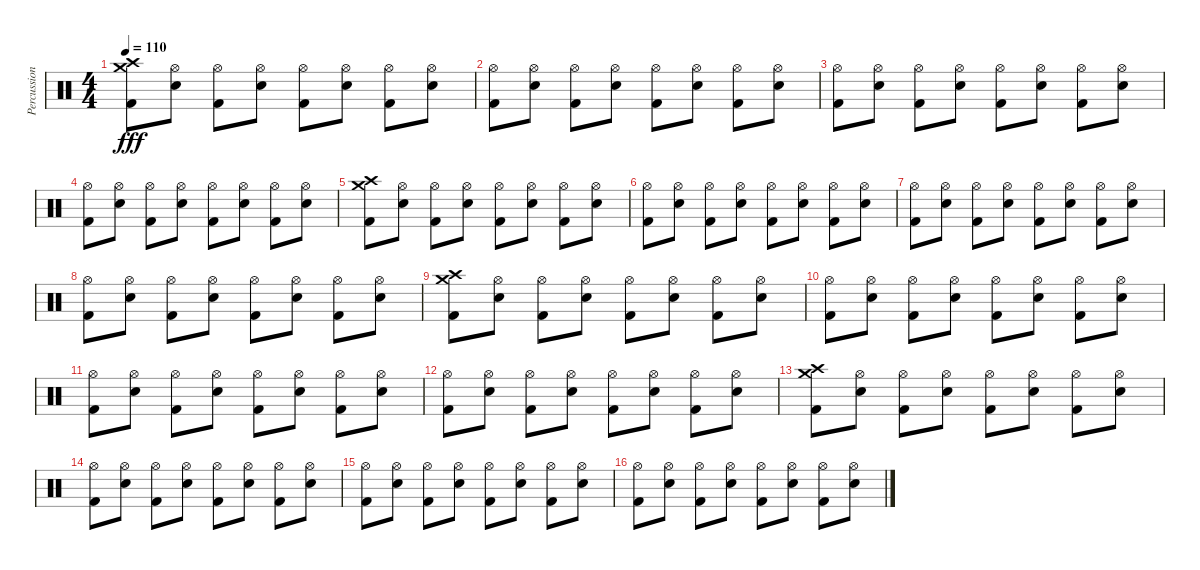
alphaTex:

\track ("Percussion" "Percussion") {instrument percussion}
\staff {score}
\articulation defaults
\ts (4 4)
\tempo 110
\clef neutral
\ks c
("Kick (hit) 2" "Crash medium (hit)" "Crash high (hit)").8{dy fff} ("Electric Snare (hit)" "Hi-Hat (open)").8 ("Kick (hit) 2" "Hi-Hat (open)").8 ("Electric Snare (hit)" "Hi-Hat (open)").8 ("Kick (hit) 2" "Hi-Hat (open)").8 ("Electric Snare (hit)" "Hi-Hat (open)").8 ("Kick (hit) 2" "Hi-Hat (open)").8 ("Electric Snare (hit)" "Hi-Hat (open)").8 |
("Kick (hit) 2" "Hi-Hat (open)").8 ("Electric Snare (hit)" "Hi-Hat (open)").8 ("Kick (hit) 2" "Hi-Hat (open)").8 ("Electric Snare (hit)" "Hi-Hat (open)").8 ("Kick (hit) 2" "Hi-Hat (open)").8 ("Electric Snare (hit)" "Hi-Hat (open)").8 ("Kick (hit) 2" "Hi-Hat (open)").8 ("Electric Snare (hit)" "Hi-Hat (open)").8 |
("Kick (hit) 2" "Hi-Hat (open)").8 ("Electric Snare (hit)" "Hi-Hat (open)").8 ("Kick (hit) 2" "Hi-Hat (open)").8 ("Electric Snare (hit)" "Hi-Hat (open)").8 ("Kick (hit) 2" "Hi-Hat (open)").8 ("Electric Snare (hit)" "Hi-Hat (open)").8 ("Kick (hit) 2" "Hi-Hat (open)").8 ("Electric Snare (hit)" "Hi-Hat (open)").8 |
("Kick (hit) 2" "Hi-Hat (open)").8 ("Electric Snare (hit)" "Hi-Hat (open)").8 ("Kick (hit) 2" "Hi-Hat (open)").8 ("Electric Snare (hit)" "Hi-Hat (open)").8 ("Kick (hit) 2" "Hi-Hat (open)").8 ("Electric Snare (hit)" "Hi-Hat (open)").8 ("Kick (hit) 2" "Hi-Hat (open)").8 ("Electric Snare (hit)" "Hi-Hat (open)").8 |
("Kick (hit) 2" "Crash medium (hit)" "Crash high (hit)").8 ("Electric Snare (hit)" "Hi-Hat (open)").8 ("Kick (hit) 2" "Hi-Hat (open)").8 ("Electric Snare (hit)" "Hi-Hat (open)").8 ("Kick (hit) 2" "Hi-Hat (open)").8 ("Electric Snare (hit)" "Hi-Hat (open)").8 ("Kick (hit) 2" "Hi-Hat (open)").8 ("Electric Snare (hit)" "Hi-Hat (open)").8 |
("Kick (hit) 2" "Hi-Hat (open)").8 ("Electric Snare (hit)" "Hi-Hat (open)").8 ("Kick (hit) 2" "Hi-Hat (open)").8 ("Electric Snare (hit)" "Hi-Hat (open)").8 ("Kick (hit) 2" "Hi-Hat (open)").8 ("Electric Snare (hit)" "Hi-Hat (open)").8 ("Kick (hit) 2" "Hi-Hat (open)").8 ("Electric Snare (hit)" "Hi-Hat (open)").8 |
("Kick (hit) 2" "Hi-Hat (open)").8 ("Electric Snare (hit)" "Hi-Hat (open)").8 ("Kick (hit) 2" "Hi-Hat (open)").8 ("Electric Snare (hit)" "Hi-Hat (open)").8 ("Kick (hit) 2" "Hi-Hat (open)").8 ("Electric Snare (hit)" "Hi-Hat (open)").8 ("Kick (hit) 2" "Hi-Hat (open)").8 ("Electric Snare (hit)" "Hi-Hat (open)").8 |
("Kick (hit) 2" "Hi-Hat (open)").8 ("Electric Snare (hit)" "Hi-Hat (open)").8 ("Kick (hit) 2" "Hi-Hat (open)").8 ("Electric Snare (hit)" "Hi-Hat (open)").8 ("Kick (hit) 2" "Hi-Hat (open)").8 ("Electric Snare (hit)" "Hi-Hat (open)").8 ("Kick (hit) 2" "Hi-Hat (open)").8 ("Electric Snare (hit)" "Hi-Hat (open)").8 |
("Kick (hit) 2" "Crash medium (hit)" "Crash high (hit)").8 ("Electric Snare (hit)" "Hi-Hat (open)").8 ("Kick (hit) 2" "Hi-Hat (open)").8 ("Electric Snare (hit)" "Hi-Hat (open)").8 ("Kick (hit) 2" "Hi-Hat (open)").8 ("Electric Snare (hit)" "Hi-Hat (open)").8 ("Kick (hit) 2" "Hi-Hat (open)").8 ("Electric Snare (hit)" "Hi-Hat (open)").8 |
("Kick (hit) 2" "Hi-Hat (open)").8 ("Electric Snare (hit)" "Hi-Hat (open)").8 ("Kick (hit) 2" "Hi-Hat (open)").8 ("Electric Snare (hit)" "Hi-Hat (open)").8 ("Kick (hit) 2" "Hi-Hat (open)").8 ("Electric Snare (hit)" "Hi-Hat (open)").8 ("Kick (hit) 2" "Hi-Hat (open)").8 ("Electric Snare (hit)" "Hi-Hat (open)").8 |
("Kick (hit) 2" "Hi-Hat (open)").8 ("Electric Snare (hit)" "Hi-Hat (open)").8 ("Kick (hit) 2" "Hi-Hat (open)").8 ("Electric Snare (hit)" "Hi-Hat (open)").8 ("Kick (hit) 2" "Hi-Hat (open)").8 ("Electric Snare (hit)" "Hi-Hat (open)").8 ("Kick (hit) 2" "Hi-Hat (open)").8 ("Electric Snare (hit)" "Hi-Hat (open)").8 |
("Kick (hit) 2" "Hi-Hat (open)").8 ("Electric Snare (hit)" "Hi-Hat (open)").8 ("Kick (hit) 2" "Hi-Hat (open)").8 ("Electric Snare (hit)" "Hi-Hat (open)").8 ("Kick (hit) 2" "Hi-Hat (open)").8 ("Electric Snare (hit)" "Hi-Hat (open)").8 ("Kick (hit) 2" "Hi-Hat (open)").8 ("Electric Snare (hit)" "Hi-Hat (open)").8 |
("Kick (hit) 2" "Crash medium (hit)" "Crash high (hit)").8 ("Electric Snare (hit)" "Hi-Hat (open)").8 ("Kick (hit) 2" "Hi-Hat (open)").8 ("Electric Snare (hit)" "Hi-Hat (open)").8 ("Kick (hit) 2" "Hi-Hat (open)").8 ("Electric Snare (hit)" "Hi-Hat (open)").8 ("Kick (hit) 2" "Hi-Hat (open)").8 ("Electric Snare (hit)" "Hi-Hat (open)").8 |
("Kick (hit) 2" "Hi-Hat (open)").8 ("Electric Snare (hit)" "Hi-Hat (open)").8 ("Kick (hit) 2" "Hi-Hat (open)").8 ("Electric Snare (hit)" "Hi-Hat (open)").8 ("Kick (hit) 2" "Hi-Hat (open)").8 ("Electric Snare (hit)" "Hi-Hat (open)").8 ("Kick (hit) 2" "Hi-Hat (open)").8 ("Electric Snare (hit)" "Hi-Hat (open)").8 |
("Kick (hit) 2" "Hi-Hat (open)").8 ("Electric Snare (hit)" "Hi-Hat (open)").8 ("Kick (hit) 2" "Hi-Hat (open)").8 ("Electric Snare (hit)" "Hi-Hat (open)").8 ("Kick (hit) 2" "Hi-Hat (open)").8 ("Electric Snare (hit)" "Hi-Hat (open)").8 ("Kick (hit) 2" "Hi-Hat (open)").8 ("Electric Snare (hit)" "Hi-Hat (open)").8 |
("Kick (hit) 2" "Hi-Hat (open)").8 ("Electric Snare (hit)" "Hi-Hat (open)").8 ("Kick (hit) 2" "Hi-Hat (open)").8 ("Electric Snare (hit)" "Hi-Hat (open)").8 ("Kick (hit) 2" "Hi-Hat (open)").8 ("Electric Snare (hit)" "Hi-Hat (open)").8 ("Kick (hit) 2" "Hi-Hat (open)").8 ("Electric Snare (hit)" "Hi-Hat (open)").8
